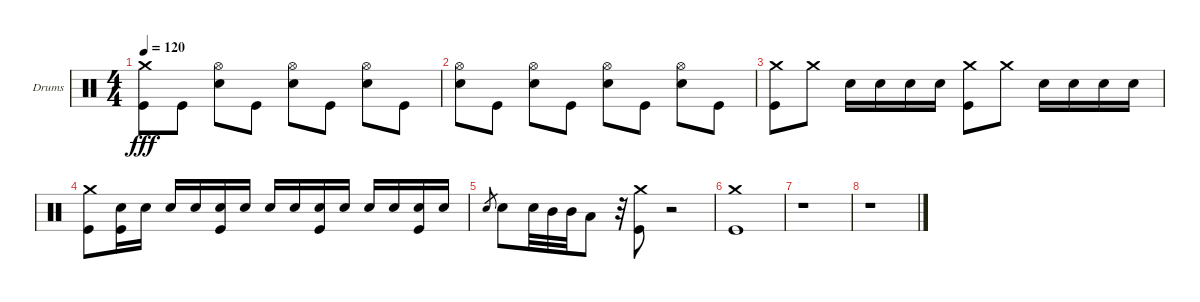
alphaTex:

\bracketExtendMode groupsimilarinstruments
\firstSystemTrackNameOrientation horizontal
\otherSystemsTrackNameOrientation horizontal
\track ("Drums" "Drums") {instrument percussion}
\staff {score}
\articulation defaults
\ts (4 4)
\tempo 120
\clef neutral
\ks c
("Kick (hit)" "Crash medium (hit)").8{dy fff} "Kick (hit)".8 ("Snare (hit) 2" "Hi-Hat (open)").8 "Kick (hit)".8 ("Snare (hit) 2" "Hi-Hat (open)").8 "Kick (hit)".8 ("Snare (hit) 2" "Hi-Hat (open)").8 "Kick (hit)".8 |
("Snare (hit) 2" "Hi-Hat (open)").8 "Kick (hit)".8 ("Snare (hit) 2" "Hi-Hat (open)").8 "Kick (hit)".8 ("Snare (hit) 2" "Hi-Hat (open)").8 "Kick (hit)".8 ("Snare (hit) 2" "Hi-Hat (open)").8 "Kick (hit)".8 |
("Kick (hit)" "Crash medium (hit)").8 "Crash medium (hit)".8 "Snare (hit) 2".16 "Snare (hit) 2".16 "Snare (hit) 2".16 "Snare (hit) 2".16 ("Kick (hit)" "Crash medium (hit)").8 "Crash medium (hit)".8 "Snare (hit) 2".16 "Snare (hit) 2".16 "Snare (hit) 2".16 "Snare (hit) 2".16 |
("Kick (hit)" "Crash medium (hit)").8 ("Kick (hit)" "Snare (hit) 2").16 "Snare (hit) 2".16 "Snare (hit) 2".16 "Snare (hit) 2".16 ("Kick (hit)" "Snare (hit) 2").16 "Snare (hit) 2".16 "Snare (hit) 2".16 "Snare (hit) 2".16 ("Kick (hit)" "Snare (hit) 2").16 "Snare (hit) 2".16 "Snare (hit) 2".16 "Snare (hit) 2".16 ("Kick (hit)" "Snare (hit) 2").16 "Snare (hit) 2".16 |
"Snare (hit) 2".8{gr} "Snare (hit) 2".8 "Snare (hit) 2".32 "Mid Tom (hit)".32 "Mid Tom (hit)".32 "Low Tom (hit)".8 r.32 ("Kick (hit)" "Crash medium (hit)").8 r.2 |
("Kick (hit)" "Crash medium (hit)").1 |
r.1 |
r.1
